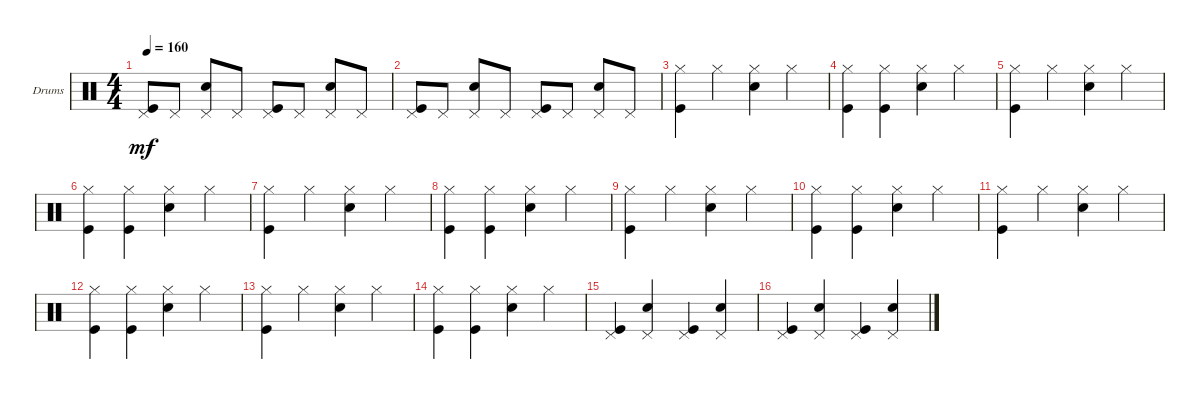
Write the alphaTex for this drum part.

\defaultSystemsLayout 4
\bracketExtendMode groupsimilarinstruments
\firstSystemTrackNameOrientation horizontal
\otherSystemsTrackNameOrientation horizontal
\track ("Drums" "Drums") {instrument percussion}
\staff {score}
\articulation defaults
\ts (4 4)
\tempo 160
\clef neutral
\ks c
("Pedal Hi-Hat (hit)" "Kick (hit)").8{dy mf} "Pedal Hi-Hat (hit)".8 ("Pedal Hi-Hat (hit)" "Snare (hit) 2").8 "Pedal Hi-Hat (hit)".8 ("Pedal Hi-Hat (hit)" "Kick (hit)").8 "Pedal Hi-Hat (hit)".8 ("Pedal Hi-Hat (hit)" "Snare (hit) 2").8 "Pedal Hi-Hat (hit)".8 |
("Pedal Hi-Hat (hit)" "Kick (hit)").8 "Pedal Hi-Hat (hit)".8 ("Pedal Hi-Hat (hit)" "Snare (hit) 2").8 "Pedal Hi-Hat (hit)".8 ("Pedal Hi-Hat (hit)" "Kick (hit)").8 "Pedal Hi-Hat (hit)".8 ("Pedal Hi-Hat (hit)" "Snare (hit) 2").8 "Pedal Hi-Hat (hit)".8 |
("Kick (hit)" "Hi-Hat (closed)").4 "Hi-Hat (closed)".4 ("Hi-Hat (closed)" "Snare (hit) 2").4 "Hi-Hat (closed)".4 |
("Kick (hit)" "Hi-Hat (closed)").4 ("Hi-Hat (closed)" "Kick (hit)").4 ("Hi-Hat (closed)" "Snare (hit) 2").4 "Hi-Hat (closed)".4 |
("Kick (hit)" "Hi-Hat (closed)").4 "Hi-Hat (closed)".4 ("Hi-Hat (closed)" "Snare (hit) 2").4 "Hi-Hat (closed)".4 |
("Kick (hit)" "Hi-Hat (closed)").4 ("Hi-Hat (closed)" "Kick (hit)").4 ("Hi-Hat (closed)" "Snare (hit) 2").4 "Hi-Hat (closed)".4 |
("Kick (hit)" "Hi-Hat (closed)").4 "Hi-Hat (closed)".4 ("Hi-Hat (closed)" "Snare (hit) 2").4 "Hi-Hat (closed)".4 |
("Kick (hit)" "Hi-Hat (closed)").4 ("Hi-Hat (closed)" "Kick (hit)").4 ("Hi-Hat (closed)" "Snare (hit) 2").4 "Hi-Hat (closed)".4 |
("Kick (hit)" "Hi-Hat (closed)").4 "Hi-Hat (closed)".4 ("Hi-Hat (closed)" "Snare (hit) 2").4 "Hi-Hat (closed)".4 |
("Kick (hit)" "Hi-Hat (closed)").4 ("Hi-Hat (closed)" "Kick (hit)").4 ("Hi-Hat (closed)" "Snare (hit) 2").4 "Hi-Hat (closed)".4 |
("Kick (hit)" "Hi-Hat (closed)").4 "Hi-Hat (closed)".4 ("Hi-Hat (closed)" "Snare (hit) 2").4 "Hi-Hat (closed)".4 |
("Kick (hit)" "Hi-Hat (closed)").4 ("Hi-Hat (closed)" "Kick (hit)").4 ("Hi-Hat (closed)" "Snare (hit) 2").4 "Hi-Hat (closed)".4 |
("Kick (hit)" "Hi-Hat (closed)").4 "Hi-Hat (closed)".4 ("Hi-Hat (closed)" "Snare (hit) 2").4 "Hi-Hat (closed)".4 |
("Kick (hit)" "Hi-Hat (closed)").4 ("Hi-Hat (closed)" "Kick (hit)").4 ("Hi-Hat (closed)" "Snare (hit) 2").4 "Hi-Hat (closed)".4 |
("Pedal Hi-Hat (hit)" "Kick (hit)").4 ("Pedal Hi-Hat (hit)" "Snare (hit) 2").4 ("Pedal Hi-Hat (hit)" "Kick (hit)").4 ("Pedal Hi-Hat (hit)" "Snare (hit) 2").4 |
("Pedal Hi-Hat (hit)" "Kick (hit)").4 ("Pedal Hi-Hat (hit)" "Snare (hit) 2").4 ("Pedal Hi-Hat (hit)" "Kick (hit)").4 ("Pedal Hi-Hat (hit)" "Snare (hit) 2").4
